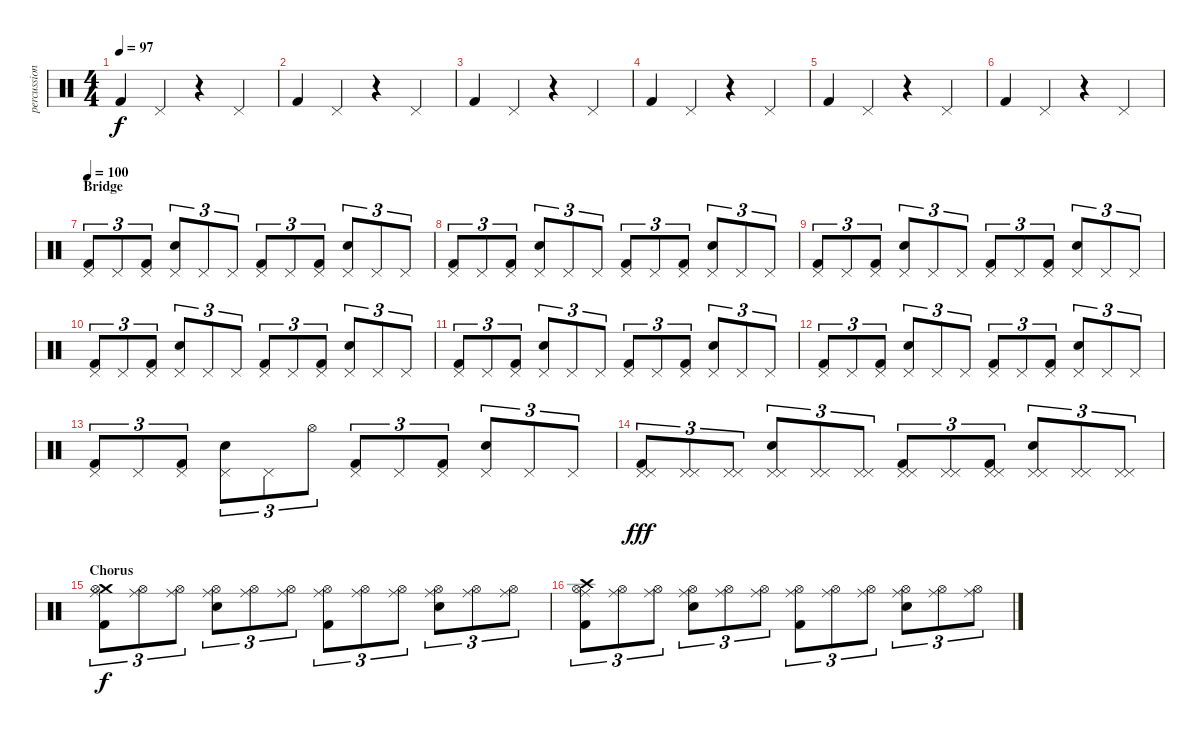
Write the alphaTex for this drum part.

\track ("percussion - vom" "percussion") {instrument percussion}
\staff {score}
\articulation defaults
\ts (4 4)
\tempo 97
\clef neutral
\ks c "Kick (hit) 2".4{dy f} "Pedal Hi-Hat (hit)".4
r.4 "Pedal Hi-Hat (hit)".4 |
"Kick (hit) 2".4 "Pedal Hi-Hat (hit)".4 r.4 "Pedal Hi-Hat (hit)".4 |
"Kick (hit) 2".4 "Pedal Hi-Hat (hit)".4 r.4 "Pedal Hi-Hat (hit)".4 |
"Kick (hit) 2".4 "Pedal Hi-Hat (hit)".4 r.4 "Pedal Hi-Hat (hit)".4 |
"Kick (hit) 2".4 "Pedal Hi-Hat (hit)".4 r.4 "Pedal Hi-Hat (hit)".4 |
"Kick (hit) 2".4 "Pedal Hi-Hat (hit)".4 r.4 "Pedal Hi-Hat (hit)".4 |
\section ("" "Bridge")
\tempo 100
("Pedal Hi-Hat (hit)" "Kick (hit) 2").8{tu (3 2)} "Pedal Hi-Hat (hit)".8{tu (3 2)} ("Pedal Hi-Hat (hit)" "Kick (hit) 2").8{tu (3 2)} ("Pedal Hi-Hat (hit)" "Snare (hit) 2").8{tu (3 2)} "Pedal Hi-Hat (hit)".8{tu (3 2)} "Pedal Hi-Hat (hit)".8{tu (3 2)} ("Pedal Hi-Hat (hit)" "Kick (hit) 2").8{tu (3 2)} "Pedal Hi-Hat (hit)".8{tu (3 2)} ("Pedal Hi-Hat (hit)" "Kick (hit) 2").8{tu (3 2)} ("Pedal Hi-Hat (hit)" "Snare (hit) 2").8{tu (3 2)} "Pedal Hi-Hat (hit)".8{tu (3 2)} "Pedal Hi-Hat (hit)".8{tu (3 2)} |
("Pedal Hi-Hat (hit)" "Kick (hit) 2").8{tu (3 2)} "Pedal Hi-Hat (hit)".8{tu (3 2)} ("Pedal Hi-Hat (hit)" "Kick (hit) 2").8{tu (3 2)} ("Pedal Hi-Hat (hit)" "Snare (hit) 2").8{tu (3 2)} "Pedal Hi-Hat (hit)".8{tu (3 2)} "Pedal Hi-Hat (hit)".8{tu (3 2)} ("Pedal Hi-Hat (hit)" "Kick (hit) 2").8{tu (3 2)} "Pedal Hi-Hat (hit)".8{tu (3 2)} ("Pedal Hi-Hat (hit)" "Kick (hit) 2").8{tu (3 2)} ("Pedal Hi-Hat (hit)" "Snare (hit) 2").8{tu (3 2)} "Pedal Hi-Hat (hit)".8{tu (3 2)} "Pedal Hi-Hat (hit)".8{tu (3 2)} |
("Pedal Hi-Hat (hit)" "Kick (hit) 2").8{tu (3 2)} "Pedal Hi-Hat (hit)".8{tu (3 2)} ("Pedal Hi-Hat (hit)" "Kick (hit) 2").8{tu (3 2)} ("Pedal Hi-Hat (hit)" "Snare (hit) 2").8{tu (3 2)} "Pedal Hi-Hat (hit)".8{tu (3 2)} "Pedal Hi-Hat (hit)".8{tu (3 2)} ("Pedal Hi-Hat (hit)" "Kick (hit) 2").8{tu (3 2)} "Pedal Hi-Hat (hit)".8{tu (3 2)} ("Pedal Hi-Hat (hit)" "Kick (hit) 2").8{tu (3 2)} ("Pedal Hi-Hat (hit)" "Snare (hit) 2").8{tu (3 2)} "Pedal Hi-Hat (hit)".8{tu (3 2)} "Pedal Hi-Hat (hit)".8{tu (3 2)} |
("Pedal Hi-Hat (hit)" "Kick (hit) 2").8{tu (3 2)} "Pedal Hi-Hat (hit)".8{tu (3 2)} ("Pedal Hi-Hat (hit)" "Kick (hit) 2").8{tu (3 2)} ("Pedal Hi-Hat (hit)" "Snare (hit) 2").8{tu (3 2)} "Pedal Hi-Hat (hit)".8{tu (3 2)} "Pedal Hi-Hat (hit)".8{tu (3 2)} ("Pedal Hi-Hat (hit)" "Kick (hit) 2").8{tu (3 2)} "Pedal Hi-Hat (hit)".8{tu (3 2)} ("Pedal Hi-Hat (hit)" "Kick (hit) 2").8{tu (3 2)} ("Pedal Hi-Hat (hit)" "Snare (hit) 2").8{tu (3 2)} "Pedal Hi-Hat (hit)".8{tu (3 2)} "Pedal Hi-Hat (hit)".8{tu (3 2)} |
("Pedal Hi-Hat (hit)" "Kick (hit) 2").8{tu (3 2)} "Pedal Hi-Hat (hit)".8{tu (3 2)} ("Pedal Hi-Hat (hit)" "Kick (hit) 2").8{tu (3 2)} ("Pedal Hi-Hat (hit)" "Snare (hit) 2").8{tu (3 2)} "Pedal Hi-Hat (hit)".8{tu (3 2)} "Pedal Hi-Hat (hit)".8{tu (3 2)} ("Pedal Hi-Hat (hit)" "Kick (hit) 2").8{tu (3 2)} "Pedal Hi-Hat (hit)".8{tu (3 2)} ("Pedal Hi-Hat (hit)" "Kick (hit) 2").8{tu (3 2)} ("Pedal Hi-Hat (hit)" "Snare (hit) 2").8{tu (3 2)} "Pedal Hi-Hat (hit)".8{tu (3 2)} "Pedal Hi-Hat (hit)".8{tu (3 2)} |
("Pedal Hi-Hat (hit)" "Kick (hit) 2").8{tu (3 2)} "Pedal Hi-Hat (hit)".8{tu (3 2)} ("Pedal Hi-Hat (hit)" "Kick (hit) 2").8{tu (3 2)} ("Pedal Hi-Hat (hit)" "Snare (hit) 2").8{tu (3 2)} "Pedal Hi-Hat (hit)".8{tu (3 2)} "Pedal Hi-Hat (hit)".8{tu (3 2)} ("Pedal Hi-Hat (hit)" "Kick (hit) 2").8{tu (3 2)} "Pedal Hi-Hat (hit)".8{tu (3 2)} ("Pedal Hi-Hat (hit)" "Kick (hit) 2").8{tu (3 2)} ("Pedal Hi-Hat (hit)" "Snare (hit) 2").8{tu (3 2)} "Pedal Hi-Hat (hit)".8{tu (3 2)} "Pedal Hi-Hat (hit)".8{tu (3 2)} |
("Pedal Hi-Hat (hit)" "Kick (hit) 2").8{tu (3 2)} "Pedal Hi-Hat (hit)".8{tu (3 2)} ("Pedal Hi-Hat (hit)" "Kick (hit) 2").8{tu (3 2)} ("Pedal Hi-Hat (hit)" "Snare (hit) 2").8{tu (3 2)} "Pedal Hi-Hat (hit)".8{tu (3 2)} "Hi-Hat (open)".8{tu (3 2)} ("Pedal Hi-Hat (hit)" "Kick (hit) 2").8{tu (3 2)} "Pedal Hi-Hat (hit)".8{tu (3 2)} ("Pedal Hi-Hat (hit)" "Kick (hit) 2").8{tu (3 2)} ("Pedal Hi-Hat (hit)" "Snare (hit) 2").8{tu (3 2)} "Pedal Hi-Hat (hit)".8{tu (3 2)} "Pedal Hi-Hat (hit)".8{tu (3 2)} |
("Pedal Hi-Hat (hit)" "Pedal Hi-Hat (hit)" "Kick (hit) 2").8{tu (3 2) dy fff} ("Pedal Hi-Hat (hit)" "Pedal Hi-Hat (hit)").8{tu (3 2)} ("Pedal Hi-Hat (hit)" "Pedal Hi-Hat (hit)").8{tu (3 2)} ("Pedal Hi-Hat (hit)" "Pedal Hi-Hat (hit)" "Snare (hit) 2").8{tu (3 2)} ("Pedal Hi-Hat (hit)" "Pedal Hi-Hat (hit)").8{tu (3 2)} ("Pedal Hi-Hat (hit)" "Pedal Hi-Hat (hit)").8{tu (3 2)} ("Pedal Hi-Hat (hit)" "Pedal Hi-Hat (hit)" "Kick (hit) 2").8{tu (3 2)} ("Pedal Hi-Hat (hit)" "Pedal Hi-Hat (hit)").8{tu (3 2)} ("Pedal Hi-Hat (hit)" "Pedal Hi-Hat (hit)" "Kick (hit) 2").8{tu (3 2)} ("Pedal Hi-Hat (hit)" "Pedal Hi-Hat (hit)" "Snare (hit) 2").8{tu (3 2)} ("Pedal Hi-Hat (hit)" "Pedal Hi-Hat (hit)").8{tu (3 2)} ("Pedal Hi-Hat (hit)" "Pedal Hi-Hat (hit)").8{tu (3 2)} |
\section ("" "Chorus")
("Ride (middle)" "Crash medium (hit)" "Hi-Hat (open)" "Kick (hit) 2").8{tu (3 2) dy f} ("Ride (middle)" "Hi-Hat (open)").8{tu (3 2)} ("Ride (middle)" "Hi-Hat (open)").8{tu (3 2)} ("Ride (middle)" "Hi-Hat (open)" "Snare (hit) 2").8{tu (3 2)} ("Ride (middle)" "Hi-Hat (open)").8{tu (3 2)} ("Ride (middle)" "Hi-Hat (open)").8{tu (3 2)} ("Ride (middle)" "Hi-Hat (open)" "Kick (hit) 2").8{tu (3 2)} ("Ride (middle)" "Hi-Hat (open)").8{tu (3 2)} ("Ride (middle)" "Hi-Hat (open)").8{tu (3 2)} ("Ride (middle)" "Hi-Hat (open)" "Snare (hit) 2").8{tu (3 2)} ("Ride (middle)" "Hi-Hat (open)").8{tu (3 2)} ("Ride (middle)" "Hi-Hat (open)").8{tu (3 2)} |
("Ride (middle)" "Crash high (hit)" "Hi-Hat (open)" "Kick (hit) 2").8{tu (3 2)} ("Ride (middle)" "Hi-Hat (open)").8{tu (3 2)} ("Ride (middle)" "Hi-Hat (open)").8{tu (3 2)} ("Ride (middle)" "Hi-Hat (open)" "Snare (hit) 2").8{tu (3 2)} ("Ride (middle)" "Hi-Hat (open)").8{tu (3 2)} ("Ride (middle)" "Hi-Hat (open)").8{tu (3 2)} ("Ride (middle)" "Hi-Hat (open)" "Kick (hit) 2").8{tu (3 2)} ("Ride (middle)" "Hi-Hat (open)").8{tu (3 2)} ("Ride (middle)" "Hi-Hat (open)").8{tu (3 2)} ("Ride (middle)" "Hi-Hat (open)" "Snare (hit) 2").8{tu (3 2)} ("Ride (middle)" "Hi-Hat (open)").8{tu (3 2)} ("Ride (middle)" "Hi-Hat (open)").8{tu (3 2)}
